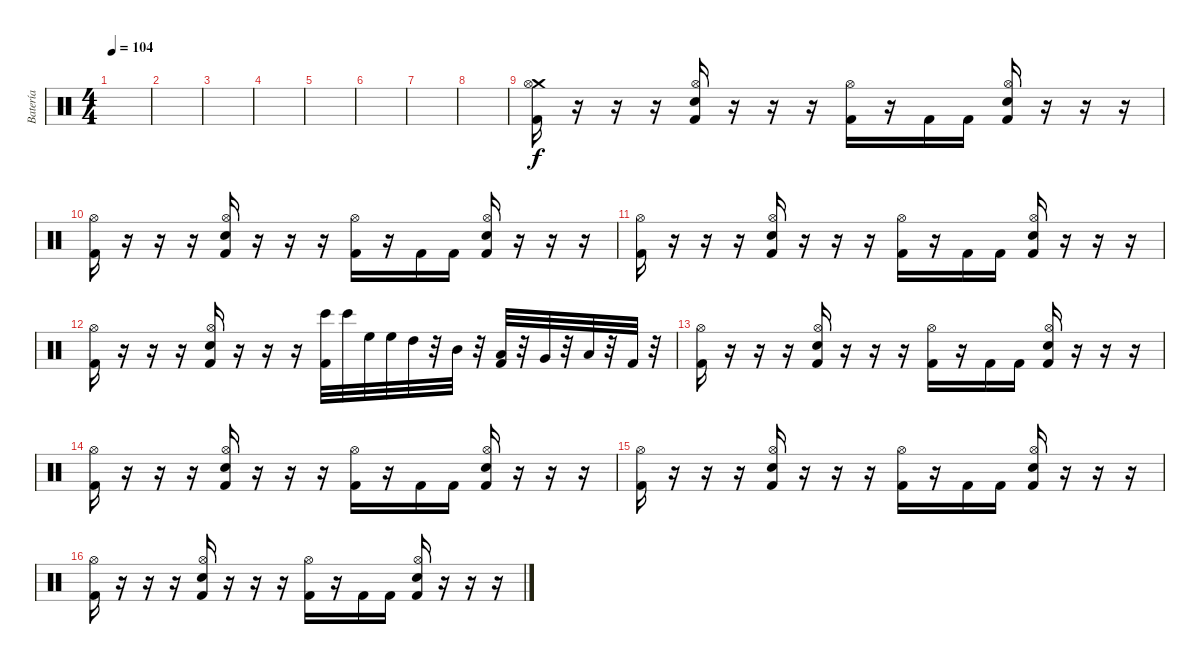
\track ("Batería" "Batería") {instrument percussion}
\staff {score}
\articulation defaults
\ts (4 4)
\tempo 104
\clef neutral
\ks c
|
|
|
|
|
|
|
|
("Kick (hit) 2" "Crash medium (hit)" "Hi-Hat (open)").16 r.16 r.16 r.16 ("Kick (hit) 2" "Snare (hit) 2" "Hi-Hat (open)").16 r.16 r.16 r.16 ("Kick (hit) 2" "Hi-Hat (open)").16 r.16 "Kick (hit) 2".16 "Kick (hit) 2".16 ("Kick (hit) 2" "Snare (hit) 2" "Hi-Hat (open)").16 r.16 r.16 r.16 |
("Kick (hit) 2" "Hi-Hat (open)").16 r.16 r.16 r.16 ("Kick (hit) 2" "Snare (hit) 2" "Hi-Hat (open)").16 r.16 r.16 r.16 ("Kick (hit) 2" "Hi-Hat (open)").16 r.16 "Kick (hit) 2".16 "Kick (hit) 2".16 ("Kick (hit) 2" "Snare (hit) 2" "Hi-Hat (open)").16 r.16 r.16 r.16 |
("Kick (hit) 2" "Hi-Hat (open)").16 r.16 r.16 r.16 ("Kick (hit) 2" "Snare (hit) 2" "Hi-Hat (open)").16 r.16 r.16 r.16 ("Kick (hit) 2" "Hi-Hat (open)").16 r.16 "Kick (hit) 2".16 "Kick (hit) 2".16 ("Kick (hit) 2" "Snare (hit) 2" "Hi-Hat (open)").16 r.16 r.16 r.16 |
("Kick (hit) 2" "Hi-Hat (open)").16 r.16 r.16 r.16 ("Kick (hit) 2" "Snare (hit) 2" "Hi-Hat (open)").16 r.16 r.16 r.16 ("Kick (hit) 2" "Bongo High (hit)").32 "Bongo High (hit)".32 "High Floor Tom (hit)".32 "High Floor Tom (hit)".32 "High Tom (hit)".32 r.32 "Mid Tom (hit)".32 r.32 ("Kick (hit) 2" "Low Tom (hit)").32 r.32 "Very Low Tom (hit)".32 r.32 "Low Floor Tom (hit)".32 r.32 "Kick (hit) 2".32 r.32 |
("Kick (hit) 2" "Hi-Hat (open)").16 r.16 r.16 r.16 ("Kick (hit) 2" "Snare (hit) 2" "Hi-Hat (open)").16 r.16 r.16 r.16 ("Kick (hit) 2" "Hi-Hat (open)").16 r.16 "Kick (hit) 2".16 "Kick (hit) 2".16 ("Kick (hit) 2" "Snare (hit) 2" "Hi-Hat (open)").16 r.16 r.16 r.16 |
("Kick (hit) 2" "Hi-Hat (open)").16 r.16 r.16 r.16 ("Kick (hit) 2" "Snare (hit) 2" "Hi-Hat (open)").16 r.16 r.16 r.16 ("Kick (hit) 2" "Hi-Hat (open)").16 r.16 "Kick (hit) 2".16 "Kick (hit) 2".16 ("Kick (hit) 2" "Snare (hit) 2" "Hi-Hat (open)").16 r.16 r.16 r.16 |
("Kick (hit) 2" "Hi-Hat (open)").16 r.16 r.16 r.16 ("Kick (hit) 2" "Snare (hit) 2" "Hi-Hat (open)").16 r.16 r.16 r.16 ("Kick (hit) 2" "Hi-Hat (open)").16 r.16 "Kick (hit) 2".16 "Kick (hit) 2".16 ("Kick (hit) 2" "Snare (hit) 2" "Hi-Hat (open)").16 r.16 r.16 r.16 |
("Kick (hit) 2" "Hi-Hat (open)").16 r.16 r.16 r.16 ("Kick (hit) 2" "Snare (hit) 2" "Hi-Hat (open)").16 r.16 r.16 r.16 ("Kick (hit) 2" "Hi-Hat (open)").16 r.16 "Kick (hit) 2".16 "Kick (hit) 2".16 ("Kick (hit) 2" "Snare (hit) 2" "Hi-Hat (open)").16 r.16 r.16 r.16
